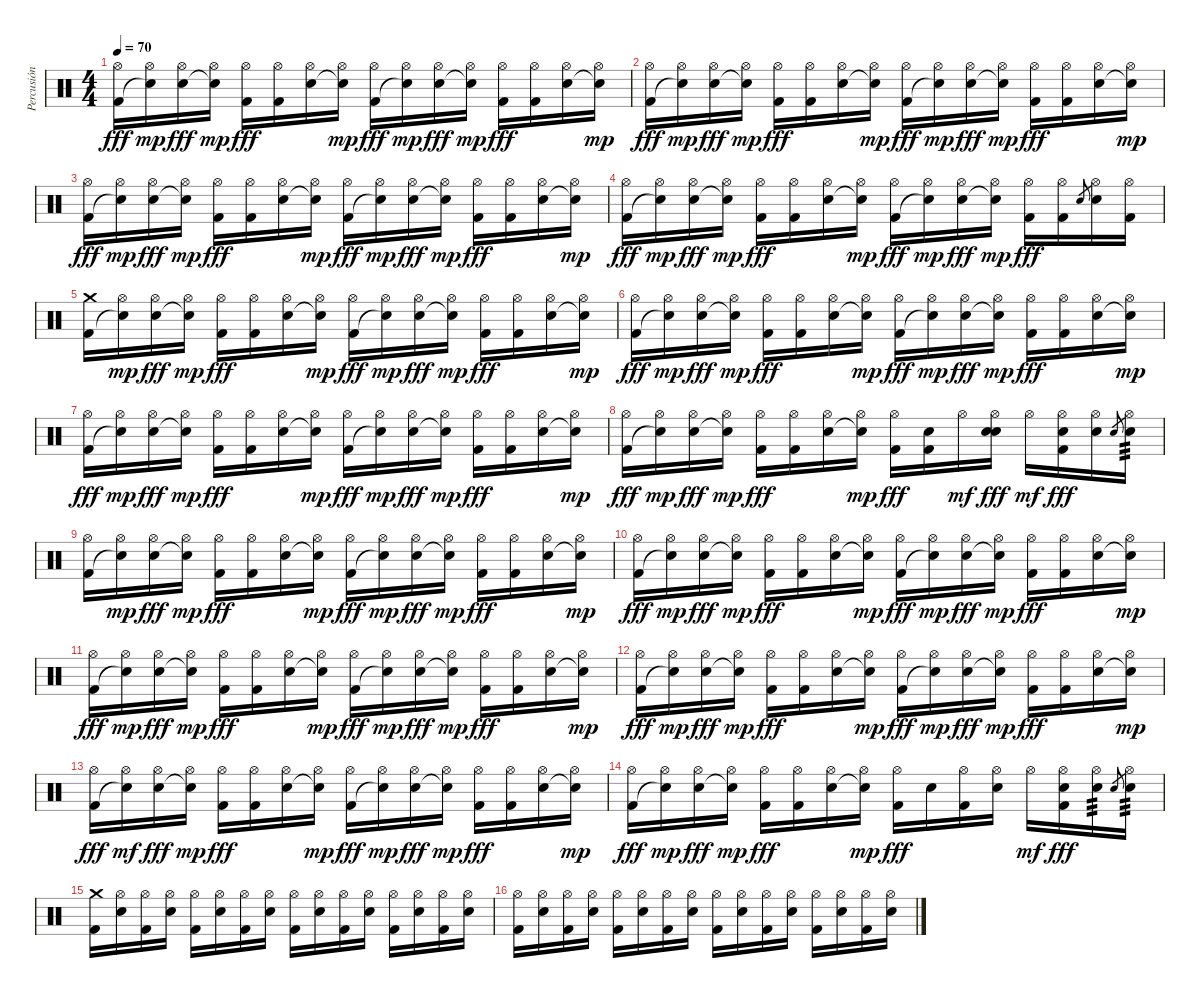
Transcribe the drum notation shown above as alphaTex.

\track ("Percusión" "Percusión") {instrument percussion}
\staff {score}
\articulation defaults
\ts (4 4)
\tempo 70
\clef neutral
\ks c
("Hi-Hat (open)" "Kick (hit) 2").16{dy fff} ("Hi-Hat (open)" "Snare (hit)"{t}).16{dy mp} ("Hi-Hat (open)" "Electric Snare (hit)").16{dy fff} ("Hi-Hat (open)" "Snare (hit)"{t}).16{dy mp} ("Hi-Hat (open)" "Kick (hit) 2").16{dy fff} ("Hi-Hat (open)" "Kick (hit) 2").16 ("Hi-Hat (open)" "Electric Snare (hit)").16 ("Hi-Hat (open)" "Snare (hit)"{t}).16{dy mp} ("Hi-Hat (open)" "Kick (hit) 2").16{dy fff} ("Hi-Hat (open)" "Snare (hit)"{t}).16{dy mp} ("Hi-Hat (open)" "Electric Snare (hit)").16{dy fff} ("Hi-Hat (open)" "Snare (hit)"{t}).16{dy mp} ("Hi-Hat (open)" "Kick (hit) 2").16{dy fff} ("Hi-Hat (open)" "Kick (hit) 2").16 ("Hi-Hat (open)" "Electric Snare (hit)").16 ("Hi-Hat (open)" "Snare (hit)"{t}).16{dy mp} |
("Hi-Hat (open)" "Kick (hit) 2").16{dy fff} ("Hi-Hat (open)" "Snare (hit)"{t}).16{dy mp} ("Hi-Hat (open)" "Electric Snare (hit)").16{dy fff} ("Hi-Hat (open)" "Snare (hit)"{t}).16{dy mp} ("Hi-Hat (open)" "Kick (hit) 2").16{dy fff} ("Hi-Hat (open)" "Kick (hit) 2").16 ("Hi-Hat (open)" "Electric Snare (hit)").16 ("Hi-Hat (open)" "Snare (hit)"{t}).16{dy mp} ("Hi-Hat (open)" "Kick (hit) 2").16{dy fff} ("Hi-Hat (open)" "Snare (hit)"{t}).16{dy mp} ("Hi-Hat (open)" "Electric Snare (hit)").16{dy fff} ("Hi-Hat (open)" "Snare (hit)"{t}).16{dy mp} ("Hi-Hat (open)" "Kick (hit) 2").16{dy fff} ("Hi-Hat (open)" "Kick (hit) 2").16 ("Hi-Hat (open)" "Electric Snare (hit)").16 ("Hi-Hat (open)" "Snare (hit)"{t}).16{dy mp} |
("Hi-Hat (open)" "Kick (hit) 2").16{dy fff} ("Hi-Hat (open)" "Snare (hit)"{t}).16{dy mp} ("Hi-Hat (open)" "Electric Snare (hit)").16{dy fff} ("Hi-Hat (open)" "Snare (hit)"{t}).16{dy mp} ("Hi-Hat (open)" "Kick (hit) 2").16{dy fff} ("Hi-Hat (open)" "Kick (hit) 2").16 ("Hi-Hat (open)" "Electric Snare (hit)").16 ("Hi-Hat (open)" "Snare (hit)"{t}).16{dy mp} ("Hi-Hat (open)" "Kick (hit) 2").16{dy fff} ("Hi-Hat (open)" "Snare (hit)"{t}).16{dy mp} ("Hi-Hat (open)" "Electric Snare (hit)").16{dy fff} ("Hi-Hat (open)" "Snare (hit)"{t}).16{dy mp} ("Hi-Hat (open)" "Kick (hit) 2").16{dy fff} ("Hi-Hat (open)" "Kick (hit) 2").16 ("Hi-Hat (open)" "Electric Snare (hit)").16 ("Hi-Hat (open)" "Snare (hit)"{t}).16{dy mp} |
("Hi-Hat (open)" "Kick (hit) 2").16{dy fff} ("Hi-Hat (open)" "Snare (hit)"{t}).16{dy mp} ("Hi-Hat (open)" "Electric Snare (hit)").16{dy fff} ("Hi-Hat (open)" "Snare (hit)"{t}).16{dy mp} ("Hi-Hat (open)" "Kick (hit) 2").16{dy fff} ("Hi-Hat (open)" "Kick (hit) 2").16 ("Hi-Hat (open)" "Electric Snare (hit)").16 ("Hi-Hat (open)" "Snare (hit)"{t}).16{dy mp} ("Hi-Hat (open)" "Kick (hit) 2").16{dy fff} ("Hi-Hat (open)" "Snare (hit)"{t}).16{dy mp} ("Hi-Hat (open)" "Electric Snare (hit)").16{dy fff} ("Hi-Hat (open)" "Snare (hit)"{t}).16{dy mp} ("Hi-Hat (open)" "Kick (hit) 2").16{dy fff} ("Hi-Hat (open)" "Kick (hit) 2").16 "Electric Snare (hit)".8{gr} ("Hi-Hat (open)" "Electric Snare (hit)").16 ("Hi-Hat (open)" "Kick (hit) 2").16 |
("Crash medium (hit)" "Kick (hit) 2").16 ("Hi-Hat (open)" "Snare (hit)"{t}).16{dy mp} ("Hi-Hat (open)" "Electric Snare (hit)").16{dy fff} ("Hi-Hat (open)" "Snare (hit)"{t}).16{dy mp} ("Hi-Hat (open)" "Kick (hit) 2").16{dy fff} ("Hi-Hat (open)" "Kick (hit) 2").16 ("Hi-Hat (open)" "Electric Snare (hit)").16 ("Hi-Hat (open)" "Snare (hit)"{t}).16{dy mp} ("Hi-Hat (open)" "Kick (hit) 2").16{dy fff} ("Hi-Hat (open)" "Snare (hit)"{t}).16{dy mp} ("Hi-Hat (open)" "Electric Snare (hit)").16{dy fff} ("Hi-Hat (open)" "Snare (hit)"{t}).16{dy mp} ("Hi-Hat (open)" "Kick (hit) 2").16{dy fff} ("Hi-Hat (open)" "Kick (hit) 2").16 ("Hi-Hat (open)" "Electric Snare (hit)").16 ("Hi-Hat (open)" "Snare (hit)"{t}).16{dy mp} |
("Hi-Hat (open)" "Kick (hit) 2").16{dy fff} ("Hi-Hat (open)" "Snare (hit)"{t}).16{dy mp} ("Hi-Hat (open)" "Electric Snare (hit)").16{dy fff} ("Hi-Hat (open)" "Snare (hit)"{t}).16{dy mp} ("Hi-Hat (open)" "Kick (hit) 2").16{dy fff} ("Hi-Hat (open)" "Kick (hit) 2").16 ("Hi-Hat (open)" "Electric Snare (hit)").16 ("Hi-Hat (open)" "Snare (hit)"{t}).16{dy mp} ("Hi-Hat (open)" "Kick (hit) 2").16{dy fff} ("Hi-Hat (open)" "Snare (hit)"{t}).16{dy mp} ("Hi-Hat (open)" "Electric Snare (hit)").16{dy fff} ("Hi-Hat (open)" "Snare (hit)"{t}).16{dy mp} ("Hi-Hat (open)" "Kick (hit) 2").16{dy fff} ("Hi-Hat (open)" "Kick (hit) 2").16 ("Hi-Hat (open)" "Electric Snare (hit)").16 ("Hi-Hat (open)" "Snare (hit)"{t}).16{dy mp} |
("Hi-Hat (open)" "Kick (hit) 2").16{dy fff} ("Hi-Hat (open)" "Snare (hit)"{t}).16{dy mp} ("Hi-Hat (open)" "Electric Snare (hit)").16{dy fff} ("Hi-Hat (open)" "Snare (hit)"{t}).16{dy mp} ("Hi-Hat (open)" "Kick (hit) 2").16{dy fff} ("Hi-Hat (open)" "Kick (hit) 2").16 ("Hi-Hat (open)" "Electric Snare (hit)").16 ("Hi-Hat (open)" "Snare (hit)"{t}).16{dy mp} ("Hi-Hat (open)" "Kick (hit) 2").16{dy fff} ("Hi-Hat (open)" "Snare (hit)"{t}).16{dy mp} ("Hi-Hat (open)" "Electric Snare (hit)").16{dy fff} ("Hi-Hat (open)" "Snare (hit)"{t}).16{dy mp} ("Hi-Hat (open)" "Kick (hit) 2").16{dy fff} ("Hi-Hat (open)" "Kick (hit) 2").16 ("Hi-Hat (open)" "Electric Snare (hit)").16 ("Hi-Hat (open)" "Snare (hit)"{t}).16{dy mp} |
("Hi-Hat (open)" "Kick (hit) 2").16{dy fff} ("Hi-Hat (open)" "Snare (hit)"{t}).16{dy mp} ("Hi-Hat (open)" "Electric Snare (hit)").16{dy fff} ("Hi-Hat (open)" "Snare (hit)"{t}).16{dy mp} ("Hi-Hat (open)" "Kick (hit) 2").16{dy fff} ("Hi-Hat (open)" "Kick (hit) 2").16 ("Hi-Hat (open)" "Electric Snare (hit)").16 ("Hi-Hat (open)" "Snare (hit)"{t}).16{dy mp} ("Hi-Hat (open)" "Kick (hit) 2").16{dy fff} ("Electric Snare (hit)" "Kick (hit) 2").16 "Hi-Hat (open)".16{dy mf} ("Hi-Hat (open)" "Electric Snare (hit)" "Snare (hit)").16{dy fff} "Hi-Hat (open)".16{dy mf} ("Hi-Hat (open)" "Electric Snare (hit)" "Kick (hit) 2").16{dy fff} ("Hi-Hat (open)" "Electric Snare (hit)").16 "Electric Snare (hit)".8{gr} ("Hi-Hat (open)" "Electric Snare (hit)").16{tp 3} |
("Hi-Hat (open)" "Kick (hit) 2").16 ("Hi-Hat (open)" "Snare (hit)"{t}).16{dy mp} ("Hi-Hat (open)" "Electric Snare (hit)").16{dy fff} ("Hi-Hat (open)" "Snare (hit)"{t}).16{dy mp} ("Hi-Hat (open)" "Kick (hit) 2").16{dy fff} ("Hi-Hat (open)" "Kick (hit) 2").16 ("Hi-Hat (open)" "Electric Snare (hit)").16 ("Hi-Hat (open)" "Snare (hit)"{t}).16{dy mp} ("Hi-Hat (open)" "Kick (hit) 2").16{dy fff} ("Hi-Hat (open)" "Snare (hit)"{t}).16{dy mp} ("Hi-Hat (open)" "Electric Snare (hit)").16{dy fff} ("Hi-Hat (open)" "Snare (hit)"{t}).16{dy mp} ("Hi-Hat (open)" "Kick (hit) 2").16{dy fff} ("Hi-Hat (open)" "Kick (hit) 2").16 ("Hi-Hat (open)" "Electric Snare (hit)").16 ("Hi-Hat (open)" "Snare (hit)"{t}).16{dy mp} |
("Hi-Hat (open)" "Kick (hit) 2").16{dy fff} ("Hi-Hat (open)" "Snare (hit)"{t}).16{dy mp} ("Hi-Hat (open)" "Electric Snare (hit)").16{dy fff} ("Hi-Hat (open)" "Snare (hit)"{t}).16{dy mp} ("Hi-Hat (open)" "Kick (hit) 2").16{dy fff} ("Hi-Hat (open)" "Kick (hit) 2").16 ("Hi-Hat (open)" "Electric Snare (hit)").16 ("Hi-Hat (open)" "Snare (hit)"{t}).16{dy mp} ("Hi-Hat (open)" "Kick (hit) 2").16{dy fff} ("Hi-Hat (open)" "Snare (hit)"{t}).16{dy mp} ("Hi-Hat (open)" "Electric Snare (hit)").16{dy fff} ("Hi-Hat (open)" "Snare (hit)"{t}).16{dy mp} ("Hi-Hat (open)" "Kick (hit) 2").16{dy fff} ("Hi-Hat (open)" "Kick (hit) 2").16 ("Hi-Hat (open)" "Electric Snare (hit)").16 ("Hi-Hat (open)" "Snare (hit)"{t}).16{dy mp} |
("Hi-Hat (open)" "Kick (hit) 2").16{dy fff} ("Hi-Hat (open)" "Snare (hit)"{t}).16{dy mp} ("Hi-Hat (open)" "Electric Snare (hit)").16{dy fff} ("Hi-Hat (open)" "Snare (hit)"{t}).16{dy mp} ("Hi-Hat (open)" "Kick (hit) 2").16{dy fff} ("Hi-Hat (open)" "Kick (hit) 2").16 ("Hi-Hat (open)" "Electric Snare (hit)").16 ("Hi-Hat (open)" "Snare (hit)"{t}).16{dy mp} ("Hi-Hat (open)" "Kick (hit) 2").16{dy fff} ("Hi-Hat (open)" "Snare (hit)"{t}).16{dy mp} ("Hi-Hat (open)" "Electric Snare (hit)").16{dy fff} ("Hi-Hat (open)" "Snare (hit)"{t}).16{dy mp} ("Hi-Hat (open)" "Kick (hit) 2").16{dy fff} ("Hi-Hat (open)" "Kick (hit) 2").16 ("Hi-Hat (open)" "Electric Snare (hit)").16 ("Hi-Hat (open)" "Snare (hit)"{t}).16{dy mp} |
("Hi-Hat (open)" "Kick (hit) 2").16{dy fff} ("Hi-Hat (open)" "Snare (hit)"{t}).16{dy mp} ("Hi-Hat (open)" "Electric Snare (hit)").16{dy fff} ("Hi-Hat (open)" "Snare (hit)"{t}).16{dy mp} ("Hi-Hat (open)" "Kick (hit) 2").16{dy fff} ("Hi-Hat (open)" "Kick (hit) 2").16 ("Hi-Hat (open)" "Electric Snare (hit)").16 ("Hi-Hat (open)" "Snare (hit)"{t}).16{dy mp} ("Hi-Hat (open)" "Kick (hit) 2").16{dy fff} ("Hi-Hat (open)" "Snare (hit)"{t}).16{dy mp} ("Hi-Hat (open)" "Electric Snare (hit)").16{dy fff} ("Hi-Hat (open)" "Snare (hit)"{t}).16{dy mp} ("Hi-Hat (open)" "Kick (hit) 2").16{dy fff} ("Hi-Hat (open)" "Kick (hit) 2").16 ("Hi-Hat (open)" "Electric Snare (hit)").16 ("Hi-Hat (open)" "Snare (hit)"{t}).16{dy mp} |
("Hi-Hat (open)" "Kick (hit) 2").16{dy fff} ("Hi-Hat (open)" "Snare (hit)"{t}).16{dy mf} ("Hi-Hat (open)" "Electric Snare (hit)").16{dy fff} ("Hi-Hat (open)" "Snare (hit)"{t}).16{dy mp} ("Hi-Hat (open)" "Kick (hit) 2").16{dy fff} ("Hi-Hat (open)" "Kick (hit) 2").16 ("Hi-Hat (open)" "Electric Snare (hit)").16 ("Hi-Hat (open)" "Snare (hit)"{t}).16{dy mp} ("Hi-Hat (open)" "Kick (hit) 2").16{dy fff} ("Hi-Hat (open)" "Snare (hit)"{t}).16{dy mp} ("Hi-Hat (open)" "Electric Snare (hit)").16{dy fff} ("Hi-Hat (open)" "Snare (hit)"{t}).16{dy mp} ("Hi-Hat (open)" "Kick (hit) 2").16{dy fff} ("Hi-Hat (open)" "Kick (hit) 2").16 ("Hi-Hat (open)" "Electric Snare (hit)").16 ("Hi-Hat (open)" "Snare (hit)"{t}).16{dy mp} |
("Hi-Hat (open)" "Kick (hit) 2").16{dy fff} ("Hi-Hat (open)" "Snare (hit)"{t}).16{dy mp} ("Hi-Hat (open)" "Electric Snare (hit)").16{dy fff} ("Hi-Hat (open)" "Snare (hit)"{t}).16{dy mp} ("Hi-Hat (open)" "Kick (hit) 2").16{dy fff} ("Hi-Hat (open)" "Kick (hit) 2").16 ("Hi-Hat (open)" "Electric Snare (hit)").16 ("Hi-Hat (open)" "Snare (hit)"{t}).16{dy mp} ("Hi-Hat (open)" "Kick (hit) 2").16{dy fff} "Electric Snare (hit)".16 ("Hi-Hat (open)" "Kick (hit) 2").16 ("Hi-Hat (open)" "Electric Snare (hit)").16 "Hi-Hat (open)".16{dy mf} ("Hi-Hat (open)" "Electric Snare (hit)" "Kick (hit) 2").16{dy fff} ("Hi-Hat (open)" "Electric Snare (hit)").16{tp 3} "Electric Snare (hit)".8{gr} ("Hi-Hat (open)" "Electric Snare (hit)").16{tp 3} |
("Crash medium (hit)" "Kick (hit) 2").16 ("Hi-Hat (open)" "Electric Snare (hit)").16 ("Hi-Hat (open)" "Kick (hit) 2").16 ("Hi-Hat (open)" "Electric Snare (hit)").16 ("Hi-Hat (open)" "Kick (hit) 2").16 ("Hi-Hat (open)" "Electric Snare (hit)").16 ("Hi-Hat (open)" "Kick (hit) 2").16 ("Hi-Hat (open)" "Electric Snare (hit)").16 ("Hi-Hat (open)" "Kick (hit) 2").16 ("Hi-Hat (open)" "Electric Snare (hit)").16 ("Hi-Hat (open)" "Kick (hit) 2").16 ("Hi-Hat (open)" "Electric Snare (hit)").16 ("Hi-Hat (open)" "Kick (hit) 2").16 ("Hi-Hat (open)" "Electric Snare (hit)").16 ("Hi-Hat (open)" "Kick (hit) 2").16 ("Hi-Hat (open)" "Electric Snare (hit)").16 |
("Hi-Hat (open)" "Kick (hit) 2").16 ("Hi-Hat (open)" "Electric Snare (hit)").16 ("Hi-Hat (open)" "Kick (hit) 2").16 ("Hi-Hat (open)" "Electric Snare (hit)").16 ("Hi-Hat (open)" "Kick (hit) 2").16 ("Hi-Hat (open)" "Electric Snare (hit)").16 ("Hi-Hat (open)" "Kick (hit) 2").16 ("Hi-Hat (open)" "Electric Snare (hit)").16 ("Hi-Hat (open)" "Kick (hit) 2").16 ("Hi-Hat (open)" "Electric Snare (hit)").16 ("Hi-Hat (open)" "Kick (hit) 2").16 ("Hi-Hat (open)" "Electric Snare (hit)").16 ("Hi-Hat (open)" "Kick (hit) 2").16 ("Hi-Hat (open)" "Electric Snare (hit)").16 ("Hi-Hat (open)" "Kick (hit) 2").16 ("Hi-Hat (open)" "Electric Snare (hit)").16
